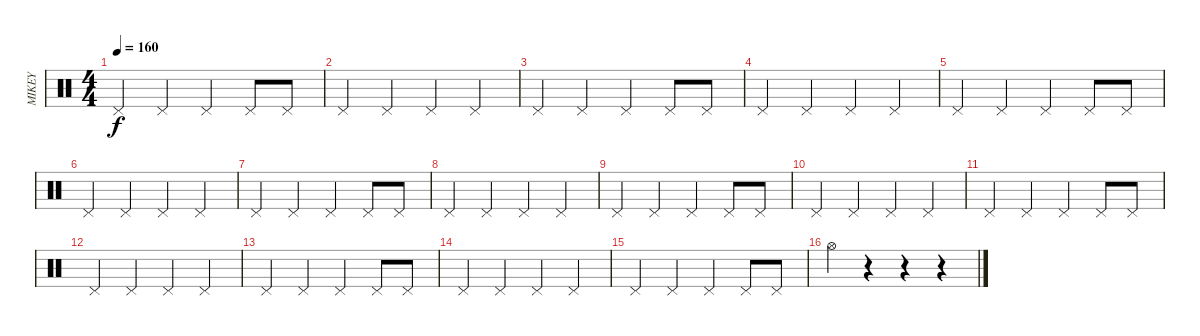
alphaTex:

\track ("MIKEY" "MIKEY") {instrument percussion}
\staff {score}
\articulation defaults
\ts (4 4)
\tempo 160
\clef neutral
\ks c "Pedal Hi-Hat (hit)".4{dy f} "Pedal Hi-Hat (hit)".4 "Pedal Hi-Hat (hit)".4 "Pedal Hi-Hat (hit)".8 "Pedal Hi-Hat (hit)".8
|
"Pedal Hi-Hat (hit)".4 "Pedal Hi-Hat (hit)".4 "Pedal Hi-Hat (hit)".4 "Pedal Hi-Hat (hit)".4 |
"Pedal Hi-Hat (hit)".4 "Pedal Hi-Hat (hit)".4 "Pedal Hi-Hat (hit)".4 "Pedal Hi-Hat (hit)".8 "Pedal Hi-Hat (hit)".8 |
"Pedal Hi-Hat (hit)".4 "Pedal Hi-Hat (hit)".4 "Pedal Hi-Hat (hit)".4 "Pedal Hi-Hat (hit)".4 |
"Pedal Hi-Hat (hit)".4 "Pedal Hi-Hat (hit)".4 "Pedal Hi-Hat (hit)".4 "Pedal Hi-Hat (hit)".8 "Pedal Hi-Hat (hit)".8 |
"Pedal Hi-Hat (hit)".4 "Pedal Hi-Hat (hit)".4 "Pedal Hi-Hat (hit)".4 "Pedal Hi-Hat (hit)".4 |
"Pedal Hi-Hat (hit)".4 "Pedal Hi-Hat (hit)".4 "Pedal Hi-Hat (hit)".4 "Pedal Hi-Hat (hit)".8 "Pedal Hi-Hat (hit)".8 |
"Pedal Hi-Hat (hit)".4 "Pedal Hi-Hat (hit)".4 "Pedal Hi-Hat (hit)".4 "Pedal Hi-Hat (hit)".4 |
"Pedal Hi-Hat (hit)".4 "Pedal Hi-Hat (hit)".4 "Pedal Hi-Hat (hit)".4 "Pedal Hi-Hat (hit)".8 "Pedal Hi-Hat (hit)".8 |
"Pedal Hi-Hat (hit)".4 "Pedal Hi-Hat (hit)".4 "Pedal Hi-Hat (hit)".4 "Pedal Hi-Hat (hit)".4 |
"Pedal Hi-Hat (hit)".4 "Pedal Hi-Hat (hit)".4 "Pedal Hi-Hat (hit)".4 "Pedal Hi-Hat (hit)".8 "Pedal Hi-Hat (hit)".8 |
"Pedal Hi-Hat (hit)".4 "Pedal Hi-Hat (hit)".4 "Pedal Hi-Hat (hit)".4 "Pedal Hi-Hat (hit)".4 |
"Pedal Hi-Hat (hit)".4 "Pedal Hi-Hat (hit)".4 "Pedal Hi-Hat (hit)".4 "Pedal Hi-Hat (hit)".8 "Pedal Hi-Hat (hit)".8 |
"Pedal Hi-Hat (hit)".4 "Pedal Hi-Hat (hit)".4 "Pedal Hi-Hat (hit)".4 "Pedal Hi-Hat (hit)".4 |
"Pedal Hi-Hat (hit)".4 "Pedal Hi-Hat (hit)".4 "Pedal Hi-Hat (hit)".4 "Pedal Hi-Hat (hit)".8 "Pedal Hi-Hat (hit)".8 |
"Hi-Hat (open)".4 r.4 r.4 r.4
